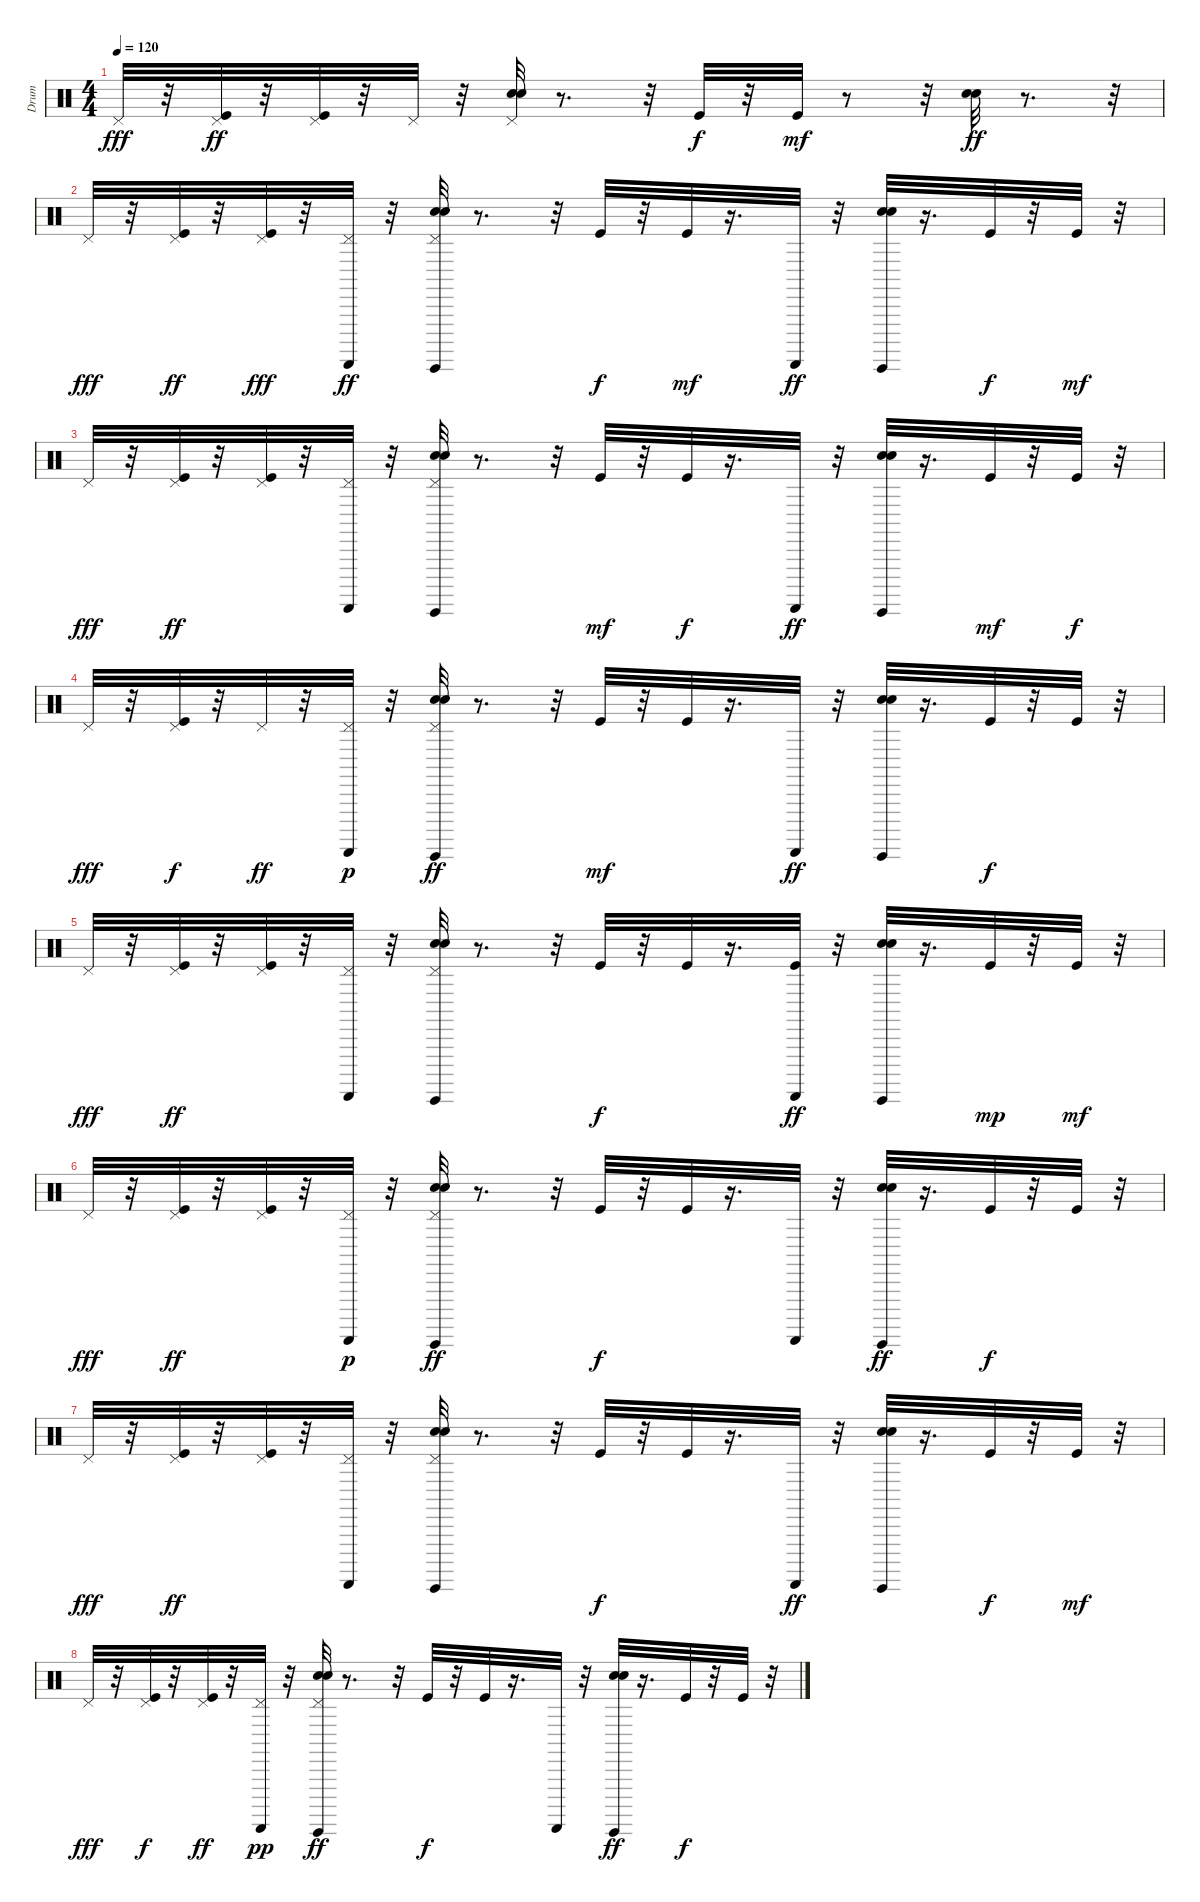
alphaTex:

\track ("Drum" "Drum") {instrument percussion}
\staff {score}
\articulation defaults
\ts (4 4)
\tempo 120
\clef neutral
\ks c "Pedal Hi-Hat (hit)".32{dy fff}
r.32 ("Kick (hit)" "Pedal Hi-Hat (hit)").32{dy ff} r.32 ("Kick (hit)" "Pedal Hi-Hat (hit)").32 r.32 "Pedal Hi-Hat (hit)".32 r.32 ("Snare (hit) 2" "Electric Snare (hit)" "Pedal Hi-Hat (hit)").32 r.8{d} r.32 "Kick (hit)".32{dy f} r.32 "Kick (hit)".32{dy mf} r.8 r.32 ("Snare (hit) 2" "Electric Snare (hit)").32{dy ff} r.8{d} r.32 |
"Pedal Hi-Hat (hit)".32{dy fff} r.32 ("Kick (hit)" "Pedal Hi-Hat (hit)").32{dy ff} r.32 ("Kick (hit)" "Pedal Hi-Hat (hit)").32{dy fff} r.32 ("Guiro (scrap-return)" "Pedal Hi-Hat (hit)").32{dy ff} r.32 ("Guiro (hit)" "Snare (hit) 2" "Electric Snare (hit)" "Pedal Hi-Hat (hit)").32 r.8{d} r.32 "Kick (hit)".32{dy f} r.32 "Kick (hit)".32{dy mf} r.16{d} "Guiro (scrap-return)".32{dy ff} r.32 ("Guiro (hit)" "Snare (hit) 2" "Electric Snare (hit)").32 r.16{d} "Kick (hit)".32{dy f} r.32 "Kick (hit)".32{dy mf} r.32 |
"Pedal Hi-Hat (hit)".32{dy fff} r.32 ("Kick (hit)" "Pedal Hi-Hat (hit)").32{dy ff} r.32 ("Kick (hit)" "Pedal Hi-Hat (hit)").32 r.32 ("Guiro (scrap-return)" "Pedal Hi-Hat (hit)").32 r.32 ("Guiro (hit)" "Snare (hit) 2" "Electric Snare (hit)" "Pedal Hi-Hat (hit)").32 r.8{d} r.32 "Kick (hit)".32{dy mf} r.32 "Kick (hit)".32{dy f} r.16{d} "Guiro (scrap-return)".32{dy ff} r.32 ("Guiro (hit)" "Snare (hit) 2" "Electric Snare (hit)").32 r.16{d} "Kick (hit)".32{dy mf} r.32 "Kick (hit)".32{dy f} r.32 |
"Pedal Hi-Hat (hit)".32{dy fff} r.32 ("Pedal Hi-Hat (hit)" "Kick (hit)").32{dy f} r.32 "Pedal Hi-Hat (hit)".32{dy ff} r.32 ("Guiro (scrap-return)" "Pedal Hi-Hat (hit)").32{dy p} r.32 ("Guiro (hit)" "Electric Snare (hit)" "Pedal Hi-Hat (hit)" "Snare (hit) 2").32{dy ff} r.8{d} r.32 "Kick (hit)".32{dy mf} r.32 "Kick (hit)".32 r.16{d} "Guiro (scrap-return)".32{dy ff} r.32 ("Guiro (hit)" "Electric Snare (hit)" "Snare (hit) 2").32 r.16{d} "Kick (hit)".32{dy f} r.32 "Kick (hit)".32 r.32 |
"Pedal Hi-Hat (hit)".32{dy fff} r.32 ("Pedal Hi-Hat (hit)" "Kick (hit)").32{dy ff} r.32 ("Kick (hit)" "Pedal Hi-Hat (hit)").32 r.32 ("Guiro (scrap-return)" "Pedal Hi-Hat (hit)").32 r.32 ("Guiro (hit)" "Electric Snare (hit)" "Pedal Hi-Hat (hit)" "Snare (hit) 2").32 r.8{d} r.32 "Kick (hit)".32{dy f} r.32 "Kick (hit)".32 r.16{d} ("Guiro (scrap-return)" "Kick (hit)").32{dy ff} r.32 ("Guiro (hit)" "Snare (hit) 2" "Electric Snare (hit)").32 r.16{d} "Kick (hit)".32{dy mp} r.32 "Kick (hit)".32{dy mf} r.32 |
"Pedal Hi-Hat (hit)".32{dy fff} r.32 ("Pedal Hi-Hat (hit)" "Kick (hit)").32{dy ff} r.32 ("Kick (hit)" "Pedal Hi-Hat (hit)").32 r.32 ("Guiro (scrap-return)" "Pedal Hi-Hat (hit)").32{dy p} r.32 ("Guiro (hit)" "Snare (hit) 2" "Electric Snare (hit)" "Pedal Hi-Hat (hit)").32{dy ff} r.8{d} r.32 "Kick (hit)".32{dy f} r.32 "Kick (hit)".32 r.16{d} "Guiro (scrap-return)".32 r.32 ("Guiro (hit)" "Snare (hit) 2" "Electric Snare (hit)").32{dy ff} r.16{d} "Kick (hit)".32{dy f} r.32 "Kick (hit)".32 r.32 |
"Pedal Hi-Hat (hit)".32{dy fff} r.32 ("Kick (hit)" "Pedal Hi-Hat (hit)").32{dy ff} r.32 ("Kick (hit)" "Pedal Hi-Hat (hit)").32 r.32 ("Guiro (scrap-return)" "Pedal Hi-Hat (hit)").32 r.32 ("Guiro (hit)" "Snare (hit) 2" "Electric Snare (hit)" "Pedal Hi-Hat (hit)").32 r.8{d} r.32 "Kick (hit)".32{dy f} r.32 "Kick (hit)".32 r.16{d} "Guiro (scrap-return)".32{dy ff} r.32 ("Guiro (hit)" "Snare (hit) 2" "Electric Snare (hit)").32 r.16{d} "Kick (hit)".32{dy f} r.32 "Kick (hit)".32{dy mf} r.32 |
"Pedal Hi-Hat (hit)".32{dy fff} r.32 ("Pedal Hi-Hat (hit)" "Kick (hit)").32{dy f} r.32 ("Kick (hit)" "Pedal Hi-Hat (hit)").32{dy ff} r.32 ("Guiro (scrap-return)" "Pedal Hi-Hat (hit)").32{dy pp} r.32 ("Guiro (hit)" "Snare (hit) 2" "Electric Snare (hit)" "Pedal Hi-Hat (hit)").32{dy ff} r.8{d} r.32 "Kick (hit)".32{dy f} r.32 "Kick (hit)".32 r.16{d} "Guiro (scrap-return)".32 r.32 ("Snare (hit) 2" "Electric Snare (hit)" "Guiro (hit)").32{dy ff} r.16{d} "Kick (hit)".32{dy f} r.32 "Kick (hit)".32 r.32
